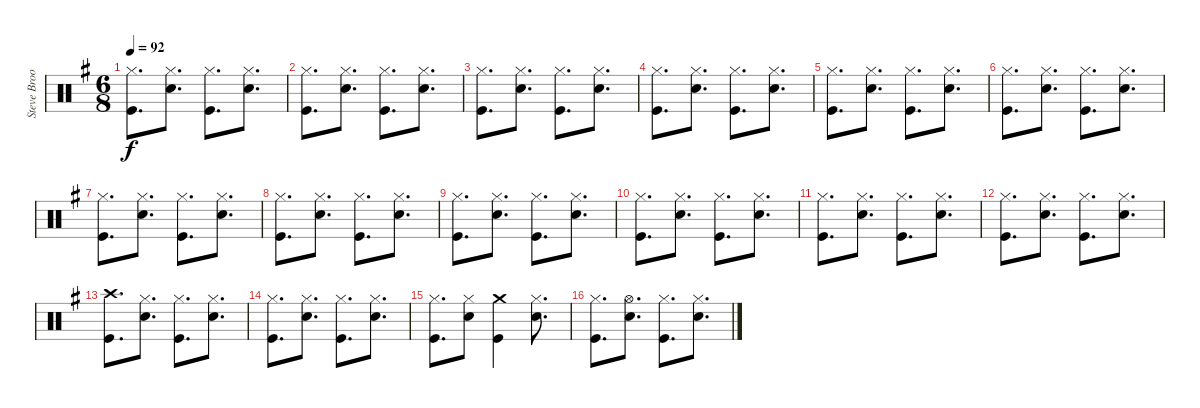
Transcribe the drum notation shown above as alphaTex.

\track ("Steve Brookins Drums" "Steve Broo") {instrument percussion}
\staff {score}
\articulation defaults
\ts (6 8)
\tempo 92
\clef neutral
\ks g
("Hi-Hat (closed)" "Kick (hit)").8{d dy f} ("Hi-Hat (closed)" "Snare (hit) 2").8{d} ("Hi-Hat (closed)" "Kick (hit)").8{d} ("Hi-Hat (closed)" "Snare (hit) 2").8{d} |
("Hi-Hat (closed)" "Kick (hit)").8{d} ("Hi-Hat (closed)" "Snare (hit) 2").8{d} ("Hi-Hat (closed)" "Kick (hit)").8{d} ("Hi-Hat (closed)" "Snare (hit) 2").8{d} |
("Hi-Hat (closed)" "Kick (hit)").8{d} ("Hi-Hat (closed)" "Snare (hit) 2").8{d} ("Hi-Hat (closed)" "Kick (hit)").8{d} ("Hi-Hat (closed)" "Snare (hit) 2").8{d} |
("Hi-Hat (closed)" "Kick (hit)").8{d} ("Hi-Hat (closed)" "Snare (hit) 2").8{d} ("Hi-Hat (closed)" "Kick (hit)").8{d} ("Hi-Hat (closed)" "Snare (hit) 2").8{d} |
("Hi-Hat (closed)" "Kick (hit)").8{d} ("Hi-Hat (closed)" "Snare (hit) 2").8{d} ("Hi-Hat (closed)" "Kick (hit)").8{d} ("Hi-Hat (closed)" "Snare (hit) 2").8{d} |
("Hi-Hat (closed)" "Kick (hit)").8{d} ("Hi-Hat (closed)" "Snare (hit) 2").8{d} ("Hi-Hat (closed)" "Kick (hit)").8{d} ("Hi-Hat (closed)" "Snare (hit) 2").8{d} |
("Hi-Hat (closed)" "Kick (hit)").8{d} ("Hi-Hat (closed)" "Snare (hit) 2").8{d} ("Hi-Hat (closed)" "Kick (hit)").8{d} ("Hi-Hat (closed)" "Snare (hit) 2").8{d} |
("Hi-Hat (closed)" "Kick (hit)").8{d} ("Hi-Hat (closed)" "Snare (hit) 2").8{d} ("Hi-Hat (closed)" "Kick (hit)").8{d} ("Hi-Hat (closed)" "Snare (hit) 2").8{d} |
("Hi-Hat (closed)" "Kick (hit)").8{d} ("Hi-Hat (closed)" "Snare (hit) 2").8{d} ("Hi-Hat (closed)" "Kick (hit)").8{d} ("Hi-Hat (closed)" "Snare (hit) 2").8{d} |
("Hi-Hat (closed)" "Kick (hit)").8{d} ("Hi-Hat (closed)" "Snare (hit) 2").8{d} ("Hi-Hat (closed)" "Kick (hit)").8{d} ("Hi-Hat (closed)" "Snare (hit) 2").8{d} |
("Hi-Hat (closed)" "Kick (hit)").8{d} ("Hi-Hat (closed)" "Snare (hit) 2").8{d} ("Hi-Hat (closed)" "Kick (hit)").8{d} ("Hi-Hat (closed)" "Snare (hit) 2").8{d} |
("Hi-Hat (closed)" "Kick (hit)").8{d} ("Hi-Hat (closed)" "Snare (hit) 2").8{d} ("Hi-Hat (closed)" "Kick (hit)").8{d} ("Hi-Hat (closed)" "Snare (hit) 2").8{d} |
("Crash high (hit)" "Kick (hit)").8{d} ("Hi-Hat (closed)" "Snare (hit) 2").8{d} ("Hi-Hat (closed)" "Kick (hit)").8{d} ("Hi-Hat (closed)" "Snare (hit) 2").8{d} |
("Hi-Hat (closed)" "Kick (hit)").8{d} ("Hi-Hat (closed)" "Snare (hit) 2").8{d} ("Hi-Hat (closed)" "Kick (hit)").8{d} ("Hi-Hat (closed)" "Snare (hit) 2").8{d} |
("Hi-Hat (closed)" "Kick (hit)").8{d} ("Hi-Hat (closed)" "Snare (hit) 2").8 ("Crash medium (hit)" "Kick (hit)").4 ("Hi-Hat (closed)" "Snare (hit) 2").8{d} |
("Hi-Hat (closed)" "Kick (hit)").8{d} ("Hi-Hat (open)" "Snare (hit) 2").8{d} ("Hi-Hat (closed)" "Kick (hit)").8{d} ("Hi-Hat (closed)" "Snare (hit) 2").8{d}
